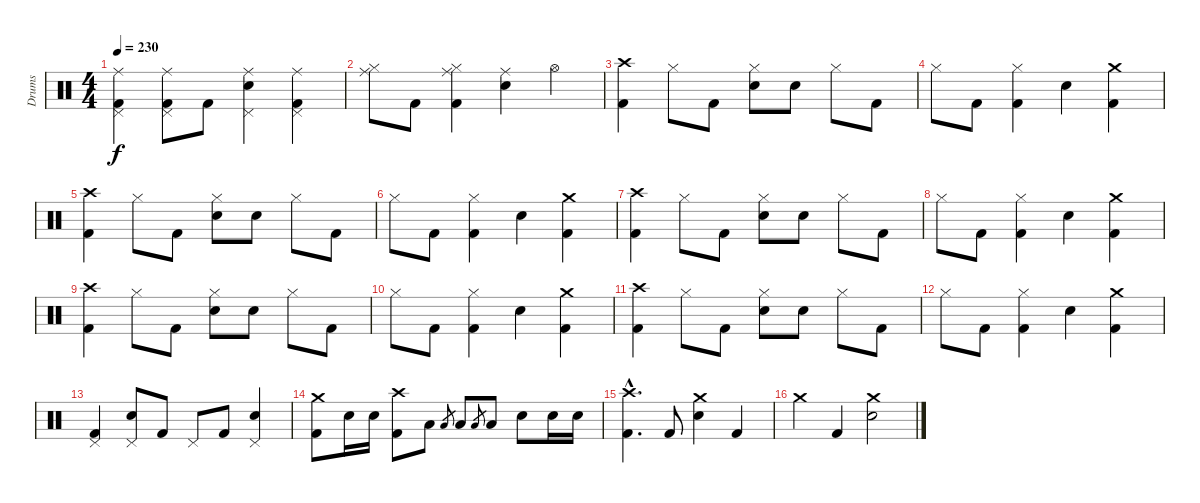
\track ("Drums" "Drums") {instrument percussion}
\staff {score}
\articulation defaults
\ts (4 4)
\tempo 230
\clef neutral
\ks c
("Ride (middle)" "Pedal Hi-Hat (hit)" "Kick (hit) 2").4{dy f} ("Ride (middle)" "Pedal Hi-Hat (hit)" "Kick (hit) 2").8 "Kick (hit) 2".8 ("Ride (middle)" "Pedal Hi-Hat (hit)" "Electric Snare (hit)").4 ("Ride (middle)" "Pedal Hi-Hat (hit)" "Kick (hit) 2").4 |
("Ride (middle)" "Hi-Hat (closed)").8 "Kick (hit) 2".8 ("Ride (middle)" "Hi-Hat (closed)" "Kick (hit) 2").4 ("Ride (middle)" "Electric Snare (hit)").4 "Hi-Hat (open)".4 |
("Crash high (hit)" "Kick (hit) 2").4 "Hi-Hat (closed)".8 "Kick (hit) 2".8 ("Hi-Hat (closed)" "Electric Snare (hit)").8 "Electric Snare (hit)".8 "Hi-Hat (closed)".8 "Kick (hit) 2".8 |
"Hi-Hat (closed)".8 "Kick (hit) 2".8 ("Hi-Hat (closed)" "Kick (hit) 2").4 "Electric Snare (hit)".4 ("Crash medium (hit)" "Kick (hit) 2").4 |
("Crash high (hit)" "Kick (hit) 2").4 "Hi-Hat (closed)".8 "Kick (hit) 2".8 ("Hi-Hat (closed)" "Electric Snare (hit)").8 "Electric Snare (hit)".8 "Hi-Hat (closed)".8 "Kick (hit) 2".8 |
"Hi-Hat (closed)".8 "Kick (hit) 2".8 ("Hi-Hat (closed)" "Kick (hit) 2").4 "Electric Snare (hit)".4 ("Crash medium (hit)" "Kick (hit) 2").4 |
("Crash high (hit)" "Kick (hit) 2").4 "Hi-Hat (closed)".8 "Kick (hit) 2".8 ("Hi-Hat (closed)" "Electric Snare (hit)").8 "Electric Snare (hit)".8 "Hi-Hat (closed)".8 "Kick (hit) 2".8 |
"Hi-Hat (closed)".8 "Kick (hit) 2".8 ("Hi-Hat (closed)" "Kick (hit) 2").4 "Electric Snare (hit)".4 ("Crash medium (hit)" "Kick (hit) 2").4 |
("Crash high (hit)" "Kick (hit) 2").4 "Hi-Hat (closed)".8 "Kick (hit) 2".8 ("Hi-Hat (closed)" "Electric Snare (hit)").8 "Electric Snare (hit)".8 "Hi-Hat (closed)".8 "Kick (hit) 2".8 |
"Hi-Hat (closed)".8 "Kick (hit) 2".8 ("Hi-Hat (closed)" "Kick (hit) 2").4 "Electric Snare (hit)".4 ("Crash medium (hit)" "Kick (hit) 2").4 |
("Crash high (hit)" "Kick (hit) 2").4 "Hi-Hat (closed)".8 "Kick (hit) 2".8 ("Hi-Hat (closed)" "Electric Snare (hit)").8 "Electric Snare (hit)".8 "Hi-Hat (closed)".8 "Kick (hit) 2".8 |
"Hi-Hat (closed)".8 "Kick (hit) 2".8 ("Hi-Hat (closed)" "Kick (hit) 2").4 "Electric Snare (hit)".4 ("Crash medium (hit)" "Kick (hit) 2").4 |
("Pedal Hi-Hat (hit)" "Kick (hit) 2").4 ("Pedal Hi-Hat (hit)" "Electric Snare (hit)").8 "Kick (hit) 2".8 "Pedal Hi-Hat (hit)".8 "Kick (hit) 2".8 ("Pedal Hi-Hat (hit)" "Electric Snare (hit)").4 |
("Crash medium (hit)" "Kick (hit) 2").8 "Electric Snare (hit)".16 "Electric Snare (hit)".16 ("Crash high (hit)" "Kick (hit) 2").8 "Low Tom (hit)".8 "Low Tom (hit)".8{gr} "Low Tom (hit)".8 "Low Tom (hit)".8{gr} "Low Tom (hit)".8 "Electric Snare (hit)".8 "Electric Snare (hit)".16 "Electric Snare (hit)".16 |
("Crash high (hit)"{hac} "Kick (hit) 2"{hac}).4{d} "Kick (hit) 2".8 ("Crash medium (hit)" "Electric Snare (hit)").4 "Kick (hit) 2".4 |
"Crash medium (hit)".4 "Kick (hit) 2".4 ("Crash medium (hit)" "Electric Snare (hit)").2
